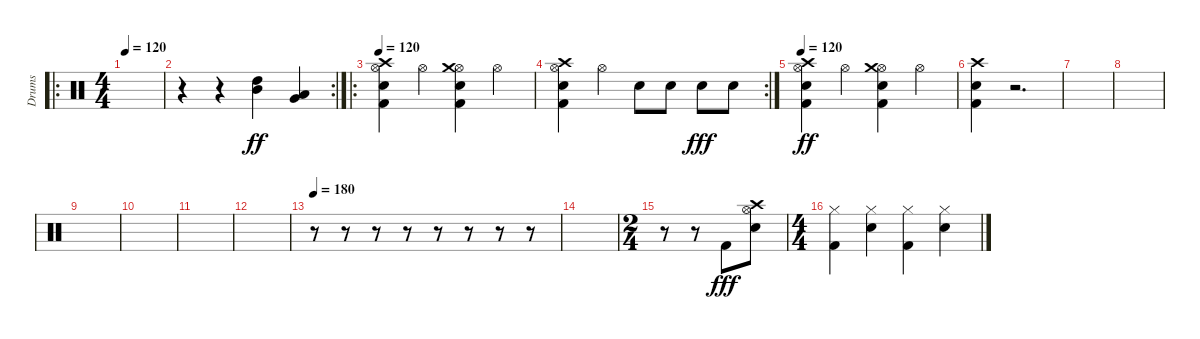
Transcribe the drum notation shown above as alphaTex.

\track ("Drums" "Drums") {instrument percussion}
\staff {score}
\articulation defaults
\ro
\ts (4 4)
\tempo 120
\clef neutral
\ks c
|
\rc 2
r.4 r.4 ("High Tom (hit)" "Mid Tom (hit)").4{dy ff} ("Low Tom (hit)" "Very Low Tom (hit)").4 |
\ro
\tempo 120
("Hi-Hat (open)" "Crash high (hit)" "Snare (hit) 2" "Kick (hit) 2").4{volume 16} "Hi-Hat (open)".4 ("Hi-Hat (open)" "Crash medium (hit)" "Snare (hit) 2" "Kick (hit) 2").4 "Hi-Hat (open)".4 |
\rc 2
("Hi-Hat (open)" "Crash high (hit)" "Snare (hit) 2" "Kick (hit) 2").4 "Hi-Hat (open)".4 "Snare (hit) 2".8 "Snare (hit) 2".8 "Snare (hit) 2".8{dy fff} "Snare (hit) 2".8 |
\tempo 120
("Hi-Hat (open)" "Crash high (hit)" "Snare (hit) 2" "Kick (hit) 2").4{dy ff volume 16} "Hi-Hat (open)".4 ("Hi-Hat (open)" "Crash medium (hit)" "Snare (hit) 2" "Kick (hit) 2").4 "Hi-Hat (open)".4 |
("Crash high (hit)" "Snare (hit) 2" "Kick (hit) 2").4 r.2{d} |
|
|
|
|
|
|
\tempo 180
r.8 r.8 r.8 r.8 r.8 r.8 r.8 r.8 |
|
\ts (2 4)
r.8 r.8 "Kick (hit) 2".8{dy fff} ("Hi-Hat (open)" "Snare (hit) 2" "Crash high (hit)").8 |
\ts (4 4)
("Hi-Hat (closed)" "Kick (hit) 2").4{volume 15} ("Hi-Hat (closed)" "Snare (hit) 2").4 ("Hi-Hat (closed)" "Kick (hit) 2").4 ("Hi-Hat (closed)" "Snare (hit) 2").4
